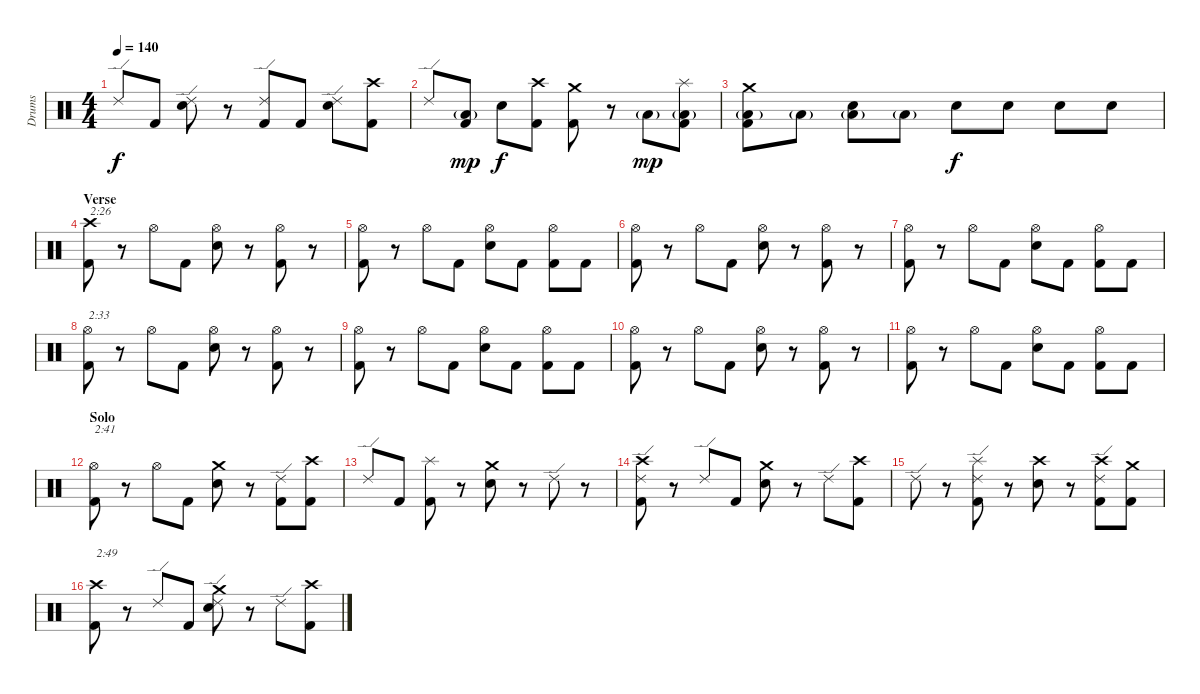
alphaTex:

\track ("Drums" "Drums") {instrument percussion}
\staff {score}
\articulation defaults
\ts (4 4)
\tempo 140
\clef neutral
\ks c "Ride (edge) 2".8{dy f} "Kick (hit) 2".8
("Ride (edge) 2" "Electric Snare (hit)").8 r.8 ("Ride (edge) 2" "Kick (hit) 2").8 "Kick (hit) 2".8 ("Ride (edge) 2" "Electric Snare (hit)").8 ("Crash high (hit)" "Kick (hit) 2").8 |
"Ride (edge) 2".8 ("Low Floor Tom (hit)"{g} "Kick (hit) 2").8{dy mp} "Electric Snare (hit)".8{dy f} ("Crash high (hit)" "Kick (hit) 2").8 ("Crash medium (hit)" "Kick (hit) 2").8 r.8 "Low Floor Tom (hit)"{g}.8{dy mp} ("Splash (hit)" "Low Floor Tom (hit)"{g} "Kick (hit) 2").8 |
("Crash medium (hit)" "Low Floor Tom (hit)"{g} "Kick (hit) 2").8 "Low Floor Tom (hit)"{g}.8 ("Low Floor Tom (hit)"{g} "Electric Snare (hit)").8 "Low Floor Tom (hit)"{g}.8 "Electric Snare (hit)".8{dy f} "Electric Snare (hit)".8 "Electric Snare (hit)".8 "Electric Snare (hit)".8 |
\section ("" "Verse")
("Crash high (hit)" "Kick (hit) 2").8{txt "2:26"} r.8 "Hi-Hat (open)".8 "Kick (hit) 2".8 ("Hi-Hat (open)" "Electric Snare (hit)").8 r.8 ("Hi-Hat (open)" "Kick (hit) 2").8 r.8 |
("Hi-Hat (open)" "Kick (hit) 2").8 r.8 "Hi-Hat (open)".8 "Kick (hit) 2".8 ("Hi-Hat (open)" "Electric Snare (hit)").8 "Kick (hit) 2".8 ("Hi-Hat (open)" "Kick (hit) 2").8 "Kick (hit) 2".8 |
("Hi-Hat (open)" "Kick (hit) 2").8 r.8 "Hi-Hat (open)".8 "Kick (hit) 2".8 ("Hi-Hat (open)" "Electric Snare (hit)").8 r.8 ("Hi-Hat (open)" "Kick (hit) 2").8 r.8 |
("Hi-Hat (open)" "Kick (hit) 2").8 r.8 "Hi-Hat (open)".8 "Kick (hit) 2".8 ("Hi-Hat (open)" "Electric Snare (hit)").8 "Kick (hit) 2".8 ("Hi-Hat (open)" "Kick (hit) 2").8 "Kick (hit) 2".8 |
("Hi-Hat (open)" "Kick (hit) 2").8{txt "2:33"} r.8 "Hi-Hat (open)".8 "Kick (hit) 2".8 ("Hi-Hat (open)" "Electric Snare (hit)").8 r.8 ("Hi-Hat (open)" "Kick (hit) 2").8 r.8 |
("Hi-Hat (open)" "Kick (hit) 2").8 r.8 "Hi-Hat (open)".8 "Kick (hit) 2".8 ("Hi-Hat (open)" "Electric Snare (hit)").8 "Kick (hit) 2".8 ("Hi-Hat (open)" "Kick (hit) 2").8 "Kick (hit) 2".8 |
("Hi-Hat (open)" "Kick (hit) 2").8 r.8 "Hi-Hat (open)".8 "Kick (hit) 2".8 ("Hi-Hat (open)" "Electric Snare (hit)").8 r.8 ("Hi-Hat (open)" "Kick (hit) 2").8 r.8 |
("Hi-Hat (open)" "Kick (hit) 2").8 r.8 "Hi-Hat (open)".8 "Kick (hit) 2".8 ("Hi-Hat (open)" "Electric Snare (hit)").8 "Kick (hit) 2".8 ("Hi-Hat (open)" "Kick (hit) 2").8 "Kick (hit) 2".8 |
\section ("" "Solo")
("Hi-Hat (open)" "Kick (hit) 2").8{txt "2:41"} r.8 "Hi-Hat (open)".8 "Kick (hit) 2".8 ("Crash medium (hit)" "Electric Snare (hit)").8 r.8 ("Ride (edge) 2" "Kick (hit) 2").8 ("Crash high (hit)" "Kick (hit) 2").8 |
"Ride (edge) 2".8 "Kick (hit) 2".8 ("Splash (hit)" "Kick (hit) 2").8 r.8 ("Crash medium (hit)" "Electric Snare (hit)").8 r.8 "Ride (edge) 2".8 r.8 |
("Crash high (hit)" "Ride (edge) 2" "Kick (hit) 2").8 r.8 "Ride (edge) 2".8 "Kick (hit) 2".8 ("Crash medium (hit)" "Electric Snare (hit)").8 r.8 "Ride (edge) 2".8 ("Crash high (hit)" "Kick (hit) 2").8 |
"Ride (edge) 2".8 r.8 ("Splash (hit)" "Ride (edge) 2" "Kick (hit) 2").8 r.8 ("Crash high (hit)" "Electric Snare (hit)").8 r.8 ("Crash high (hit)" "Ride (edge) 2" "Kick (hit) 2").8 ("Crash medium (hit)" "Kick (hit) 2").8 |
("Crash high (hit)" "Kick (hit) 2").8{txt "2:49"} r.8 "Ride (edge) 2".8 "Kick (hit) 2".8 ("Crash medium (hit)" "Ride (edge) 2" "Electric Snare (hit)").8 r.8 "Ride (edge) 2".8 ("Crash high (hit)" "Kick (hit) 2").8
